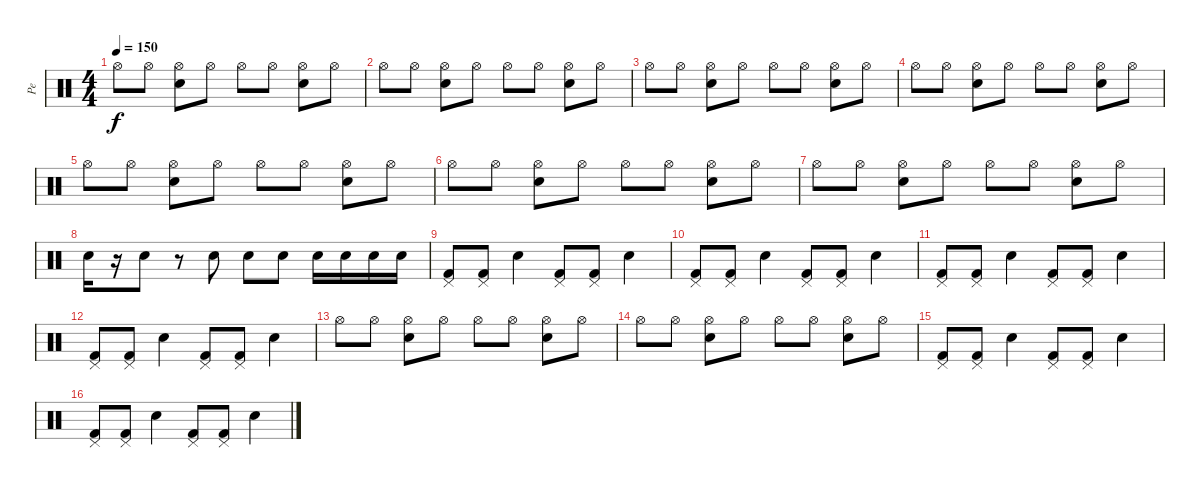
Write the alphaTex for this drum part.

\track ("Pe" "Pe") {instrument percussion}
\staff {score}
\articulation defaults
\ts (4 4)
\tempo 150
\clef neutral
\ks c "Hi-Hat (open)".8{dy f} "Hi-Hat (open)".8
("Electric Snare (hit)" "Hi-Hat (open)").8 "Hi-Hat (open)".8 "Hi-Hat (open)".8 "Hi-Hat (open)".8 ("Electric Snare (hit)" "Hi-Hat (open)").8 "Hi-Hat (open)".8 |
"Hi-Hat (open)".8 "Hi-Hat (open)".8 ("Electric Snare (hit)" "Hi-Hat (open)").8 "Hi-Hat (open)".8 "Hi-Hat (open)".8 "Hi-Hat (open)".8 ("Electric Snare (hit)" "Hi-Hat (open)").8 "Hi-Hat (open)".8 |
"Hi-Hat (open)".8 "Hi-Hat (open)".8 ("Electric Snare (hit)" "Hi-Hat (open)").8 "Hi-Hat (open)".8 "Hi-Hat (open)".8 "Hi-Hat (open)".8 ("Electric Snare (hit)" "Hi-Hat (open)").8 "Hi-Hat (open)".8 |
"Hi-Hat (open)".8 "Hi-Hat (open)".8 ("Electric Snare (hit)" "Hi-Hat (open)").8 "Hi-Hat (open)".8 "Hi-Hat (open)".8 "Hi-Hat (open)".8 ("Electric Snare (hit)" "Hi-Hat (open)").8 "Hi-Hat (open)".8 |
"Hi-Hat (open)".8 "Hi-Hat (open)".8 ("Electric Snare (hit)" "Hi-Hat (open)").8 "Hi-Hat (open)".8 "Hi-Hat (open)".8 "Hi-Hat (open)".8 ("Electric Snare (hit)" "Hi-Hat (open)").8 "Hi-Hat (open)".8 |
"Hi-Hat (open)".8 "Hi-Hat (open)".8 ("Electric Snare (hit)" "Hi-Hat (open)").8 "Hi-Hat (open)".8 "Hi-Hat (open)".8 "Hi-Hat (open)".8 ("Electric Snare (hit)" "Hi-Hat (open)").8 "Hi-Hat (open)".8 |
"Hi-Hat (open)".8 "Hi-Hat (open)".8 ("Electric Snare (hit)" "Hi-Hat (open)").8 "Hi-Hat (open)".8 "Hi-Hat (open)".8 "Hi-Hat (open)".8 ("Electric Snare (hit)" "Hi-Hat (open)").8 "Hi-Hat (open)".8 |
"Electric Snare (hit)".16 r.16 "Electric Snare (hit)".8 r.8 "Electric Snare (hit)".8 "Electric Snare (hit)".8 "Electric Snare (hit)".8 "Electric Snare (hit)".16 "Electric Snare (hit)".16 "Electric Snare (hit)".16 "Electric Snare (hit)".16 |
("Kick (hit) 2" "Pedal Hi-Hat (hit)").8 ("Kick (hit) 2" "Pedal Hi-Hat (hit)").8 "Electric Snare (hit)".4 ("Kick (hit) 2" "Pedal Hi-Hat (hit)").8 ("Kick (hit) 2" "Pedal Hi-Hat (hit)").8 "Electric Snare (hit)".4 |
("Kick (hit) 2" "Pedal Hi-Hat (hit)").8 ("Kick (hit) 2" "Pedal Hi-Hat (hit)").8 "Electric Snare (hit)".4 ("Kick (hit) 2" "Pedal Hi-Hat (hit)").8 ("Kick (hit) 2" "Pedal Hi-Hat (hit)").8 "Electric Snare (hit)".4 |
("Kick (hit) 2" "Pedal Hi-Hat (hit)").8 ("Kick (hit) 2" "Pedal Hi-Hat (hit)").8 "Electric Snare (hit)".4 ("Kick (hit) 2" "Pedal Hi-Hat (hit)").8 ("Kick (hit) 2" "Pedal Hi-Hat (hit)").8 "Electric Snare (hit)".4 |
("Kick (hit) 2" "Pedal Hi-Hat (hit)").8 ("Kick (hit) 2" "Pedal Hi-Hat (hit)").8 "Electric Snare (hit)".4 ("Kick (hit) 2" "Pedal Hi-Hat (hit)").8 ("Kick (hit) 2" "Pedal Hi-Hat (hit)").8 "Electric Snare (hit)".4 |
"Hi-Hat (open)".8 "Hi-Hat (open)".8 ("Electric Snare (hit)" "Hi-Hat (open)").8 "Hi-Hat (open)".8 "Hi-Hat (open)".8 "Hi-Hat (open)".8 ("Electric Snare (hit)" "Hi-Hat (open)").8 "Hi-Hat (open)".8 |
"Hi-Hat (open)".8 "Hi-Hat (open)".8 ("Electric Snare (hit)" "Hi-Hat (open)").8 "Hi-Hat (open)".8 "Hi-Hat (open)".8 "Hi-Hat (open)".8 ("Electric Snare (hit)" "Hi-Hat (open)").8 "Hi-Hat (open)".8 |
("Kick (hit) 2" "Pedal Hi-Hat (hit)").8 ("Kick (hit) 2" "Pedal Hi-Hat (hit)").8 "Electric Snare (hit)".4 ("Kick (hit) 2" "Pedal Hi-Hat (hit)").8 ("Kick (hit) 2" "Pedal Hi-Hat (hit)").8 "Electric Snare (hit)".4 |
("Kick (hit) 2" "Pedal Hi-Hat (hit)").8 ("Kick (hit) 2" "Pedal Hi-Hat (hit)").8 "Electric Snare (hit)".4 ("Kick (hit) 2" "Pedal Hi-Hat (hit)").8 ("Kick (hit) 2" "Pedal Hi-Hat (hit)").8 "Electric Snare (hit)".4
